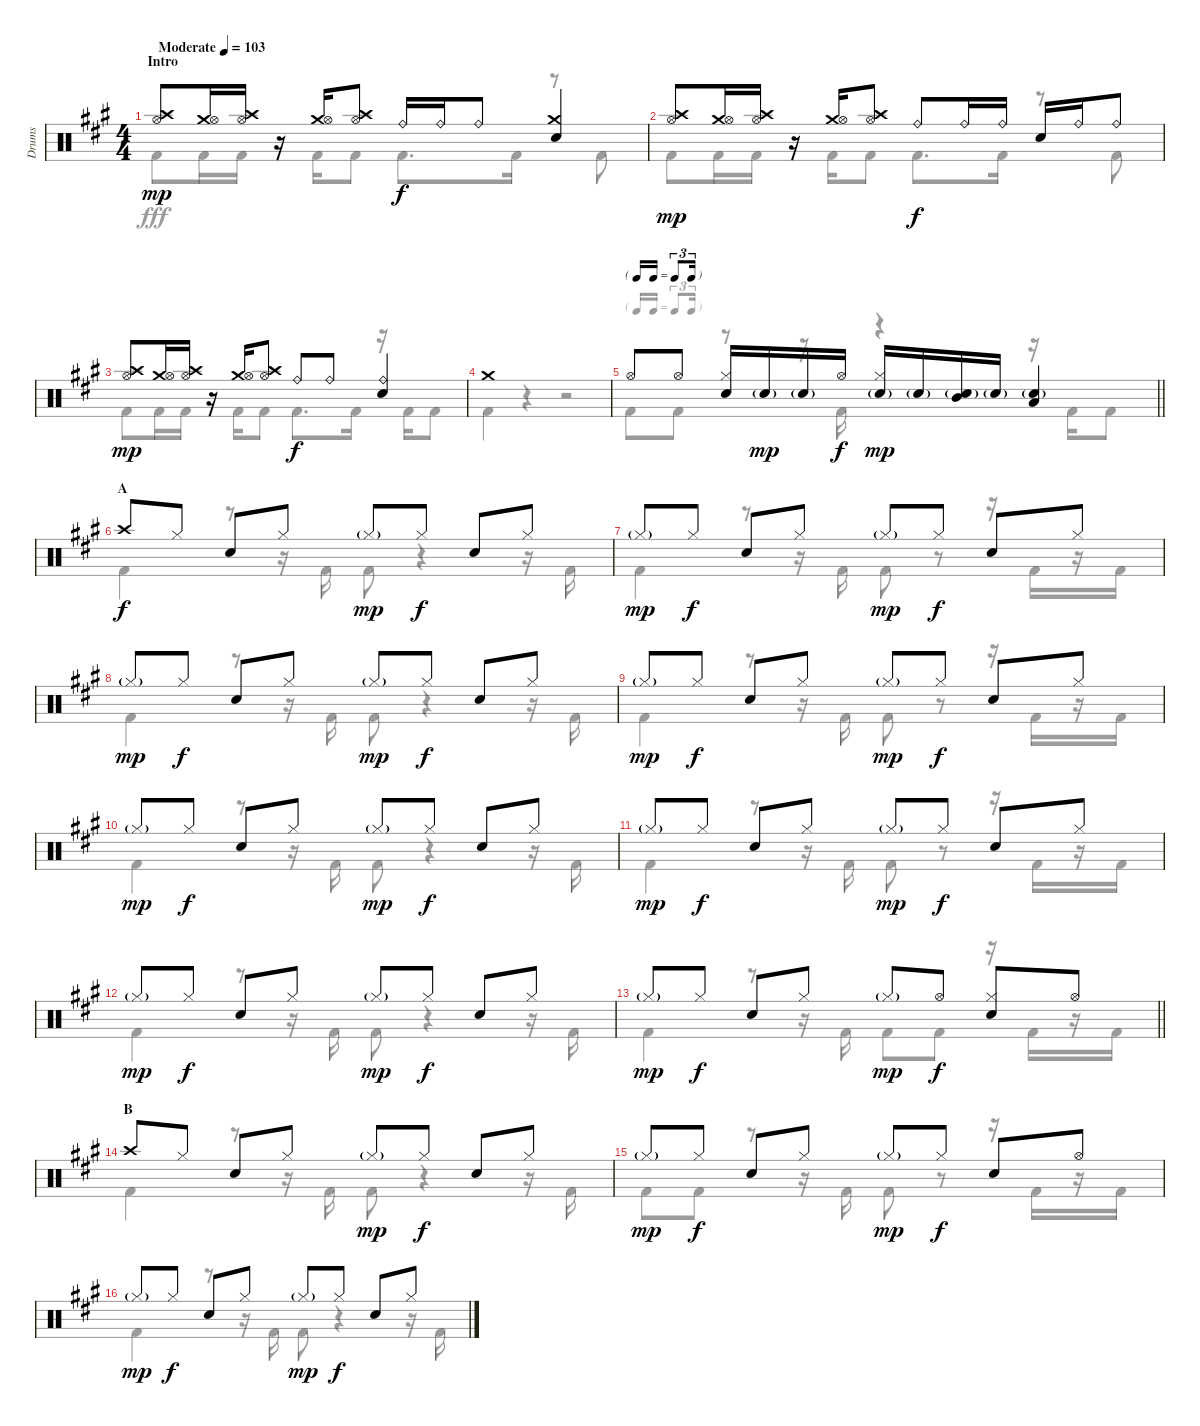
\track ("Drums" "Drums") {instrument percussion}
\staff {score}
\articulation defaults
\voice
\ts (4 4)
\section ("" "Intro")
\tempo (103 "Moderate")
\clef neutral
\ks a
("Crash high (hit)" "Hi-Hat (open)").8{dy mp} ("Crash medium (hit)" "Hi-Hat (open)").16 ("Crash high (hit)" "Hi-Hat (open)").16 r.16 ("Crash medium (hit)" "Hi-Hat (open)").16 ("Crash high (hit)" "Hi-Hat (open)").8 "Ride (bell)".16{dy f} "Ride (bell)".16 "Ride (bell)".8 ("Crash medium (hit)" "Snare (hit) 2").4 |
("Crash high (hit)" "Hi-Hat (open)").8{dy mp} ("Crash medium (hit)" "Hi-Hat (open)").16 ("Crash high (hit)" "Hi-Hat (open)").16 r.16 ("Crash medium (hit)" "Hi-Hat (open)").16 ("Crash high (hit)" "Hi-Hat (open)").8 "Ride (bell)".8{dy f} "Ride (bell)".16 "Ride (bell)".16 "Snare (hit) 2".16 "Ride (bell)".16 "Ride (bell)".8 |
("Crash high (hit)" "Hi-Hat (open)").8{dy mp} ("Crash medium (hit)" "Hi-Hat (open)").16 ("Crash high (hit)" "Hi-Hat (open)").16 r.16 ("Crash medium (hit)" "Hi-Hat (open)").16 ("Crash high (hit)" "Hi-Hat (open)").8 "Ride (bell)".8{dy f} "Ride (bell)".8 ("Ride (bell)" "Snare (hit) 2").4 |
"Crash medium (hit)".1 |
\tf triplet16th
\barLineRight lightlight "Hi-Hat (open)".8 "Hi-Hat (open)".8
("Hi-Hat (closed)" "Snare (hit) 2").16 "Snare (hit) 2"{g}.16{dy mp} "Snare (hit) 2"{g}.16 "Hi-Hat (open)".16{dy f} ("Hi-Hat (closed)" "Snare (hit) 2"{g}).16{dy mp} "Snare (hit) 2"{g}.16 ("Mid Tom (hit)" "Snare (hit) 2"{g}).16 "Snare (hit) 2"{g}.16 ("Low Tom (hit)" "Snare (hit) 2"{g}).4 |
\section ("" "A")
"Crash high (hit)".8{dy f} "Hi-Hat (closed)".8 "Snare (hit) 2".8 "Hi-Hat (closed)".8 "Hi-Hat (closed)"{g}.8{dy mp} "Hi-Hat (closed)".8{dy f} "Snare (hit) 2".8 "Hi-Hat (closed)".8 |
"Hi-Hat (closed)"{g}.8{dy mp} "Hi-Hat (closed)".8{dy f} "Snare (hit) 2".8 "Hi-Hat (closed)".8 "Hi-Hat (closed)"{g}.8{dy mp} "Hi-Hat (closed)".8{dy f} "Snare (hit) 2".8 "Hi-Hat (closed)".8 |
"Hi-Hat (closed)"{g}.8{dy mp} "Hi-Hat (closed)".8{dy f} "Snare (hit) 2".8 "Hi-Hat (closed)".8 "Hi-Hat (closed)"{g}.8{dy mp} "Hi-Hat (closed)".8{dy f} "Snare (hit) 2".8 "Hi-Hat (closed)".8 |
"Hi-Hat (closed)"{g}.8{dy mp} "Hi-Hat (closed)".8{dy f} "Snare (hit) 2".8 "Hi-Hat (closed)".8 "Hi-Hat (closed)"{g}.8{dy mp} "Hi-Hat (closed)".8{dy f} "Snare (hit) 2".8 "Hi-Hat (closed)".8 |
"Hi-Hat (closed)"{g}.8{dy mp} "Hi-Hat (closed)".8{dy f} "Snare (hit) 2".8 "Hi-Hat (closed)".8 "Hi-Hat (closed)"{g}.8{dy mp} "Hi-Hat (closed)".8{dy f} "Snare (hit) 2".8 "Hi-Hat (closed)".8 |
"Hi-Hat (closed)"{g}.8{dy mp} "Hi-Hat (closed)".8{dy f} "Snare (hit) 2".8 "Hi-Hat (closed)".8 "Hi-Hat (closed)"{g}.8{dy mp} "Hi-Hat (closed)".8{dy f} "Snare (hit) 2".8 "Hi-Hat (closed)".8 |
"Hi-Hat (closed)"{g}.8{dy mp} "Hi-Hat (closed)".8{dy f} "Snare (hit) 2".8 "Hi-Hat (closed)".8 "Hi-Hat (closed)"{g}.8{dy mp} "Hi-Hat (closed)".8{dy f} "Snare (hit) 2".8 "Hi-Hat (closed)".8 |
\barLineRight lightlight "Hi-Hat (closed)"{g}.8{dy mp} "Hi-Hat (closed)".8{dy f} "Snare (hit) 2".8 "Hi-Hat (closed)".8 "Hi-Hat (closed)"{g}.8{dy mp} "Hi-Hat (open)".8{dy f}
("Hi-Hat (closed)" "Snare (hit) 2").8 "Hi-Hat (open)".8 |
\section ("" "B")
"Crash high (hit)".8 "Hi-Hat (closed)".8 "Snare (hit) 2".8 "Hi-Hat (closed)".8 "Hi-Hat (closed)"{g}.8{dy mp} "Hi-Hat (closed)".8{dy f} "Snare (hit) 2".8 "Hi-Hat (closed)".8 |
"Hi-Hat (closed)"{g}.8{dy mp} "Hi-Hat (closed)".8{dy f} "Snare (hit) 2".8 "Hi-Hat (closed)".8 "Hi-Hat (closed)"{g}.8{dy mp} "Hi-Hat (closed)".8{dy f} "Snare (hit) 2".8 "Hi-Hat (open)".8 |
"Hi-Hat (closed)"{g}.8{dy mp} "Hi-Hat (closed)".8{dy f} "Snare (hit) 2".8 "Hi-Hat (closed)".8 "Hi-Hat (closed)"{g}.8{dy mp} "Hi-Hat (closed)".8{dy f} "Snare (hit) 2".8 "Hi-Hat (closed)".8
\voice
\clef neutral
\ottava regular
\simile none
\ks a "Kick (hit) 2".8{dy fff} "Kick (hit) 2".16 "Kick (hit) 2".16
r.16 "Kick (hit) 2".16 "Kick (hit) 2".8 "Kick (hit) 2".8{d} "Kick (hit) 2".16 r.8 "Kick (hit) 2".8 |
"Kick (hit) 2".8 "Kick (hit) 2".16 "Kick (hit) 2".16 r.16 "Kick (hit) 2".16 "Kick (hit) 2".8 "Kick (hit) 2".8{d} "Kick (hit) 2".16 r.8 "Kick (hit) 2".8 |
"Kick (hit) 2".8 "Kick (hit) 2".16 "Kick (hit) 2".16 r.16 "Kick (hit) 2".16 "Kick (hit) 2".8 "Kick (hit) 2".8{d} "Kick (hit) 2".16 r.16 "Kick (hit) 2".16 "Kick (hit) 2".8 |
"Kick (hit) 2".4 r.4 r.2 |
\barLineRight lightlight "Kick (hit) 2".8 "Kick (hit) 2".8
r.8 r.16 "Kick (hit) 2".16 r.4 r.16 "Kick (hit) 2".16 "Kick (hit) 2".8 |
"Kick (hit) 2".4 r.8 r.16 "Kick (hit) 2".16 "Kick (hit) 2".8 r.4 r.16 "Kick (hit) 2".16 |
"Kick (hit) 2".4 r.8 r.16 "Kick (hit) 2".16 "Kick (hit) 2".8 r.8 r.16 "Kick (hit) 2".16 r.16 "Kick (hit) 2".16 |
"Kick (hit) 2".4 r.8 r.16 "Kick (hit) 2".16 "Kick (hit) 2".8 r.4 r.16 "Kick (hit) 2".16 |
"Kick (hit) 2".4 r.8 r.16 "Kick (hit) 2".16 "Kick (hit) 2".8 r.8 r.16 "Kick (hit) 2".16 r.16 "Kick (hit) 2".16 |
"Kick (hit) 2".4 r.8 r.16 "Kick (hit) 2".16 "Kick (hit) 2".8 r.4 r.16 "Kick (hit) 2".16 |
"Kick (hit) 2".4 r.8 r.16 "Kick (hit) 2".16 "Kick (hit) 2".8 r.8 r.16 "Kick (hit) 2".16 r.16 "Kick (hit) 2".16 |
"Kick (hit) 2".4 r.8 r.16 "Kick (hit) 2".16 "Kick (hit) 2".8 r.4 r.16 "Kick (hit) 2".16 |
\barLineRight lightlight "Kick (hit) 2".4
r.8 r.16 "Kick (hit) 2".16 "Kick (hit) 2".8 "Kick (hit) 2".8 r.16 "Kick (hit) 2".16 r.16 "Kick (hit) 2".16 |
"Kick (hit) 2".4 r.8 r.16 "Kick (hit) 2".16 "Kick (hit) 2".8 r.4 r.16 "Kick (hit) 2".16 |
"Kick (hit) 2".8 "Kick (hit) 2".8 r.8 r.16 "Kick (hit) 2".16 "Kick (hit) 2".8 r.8 r.16 "Kick (hit) 2".16 r.16 "Kick (hit) 2".16 |
"Kick (hit) 2".4 r.8 r.16 "Kick (hit) 2".16 "Kick (hit) 2".8 r.4 r.16 "Kick (hit) 2".16
